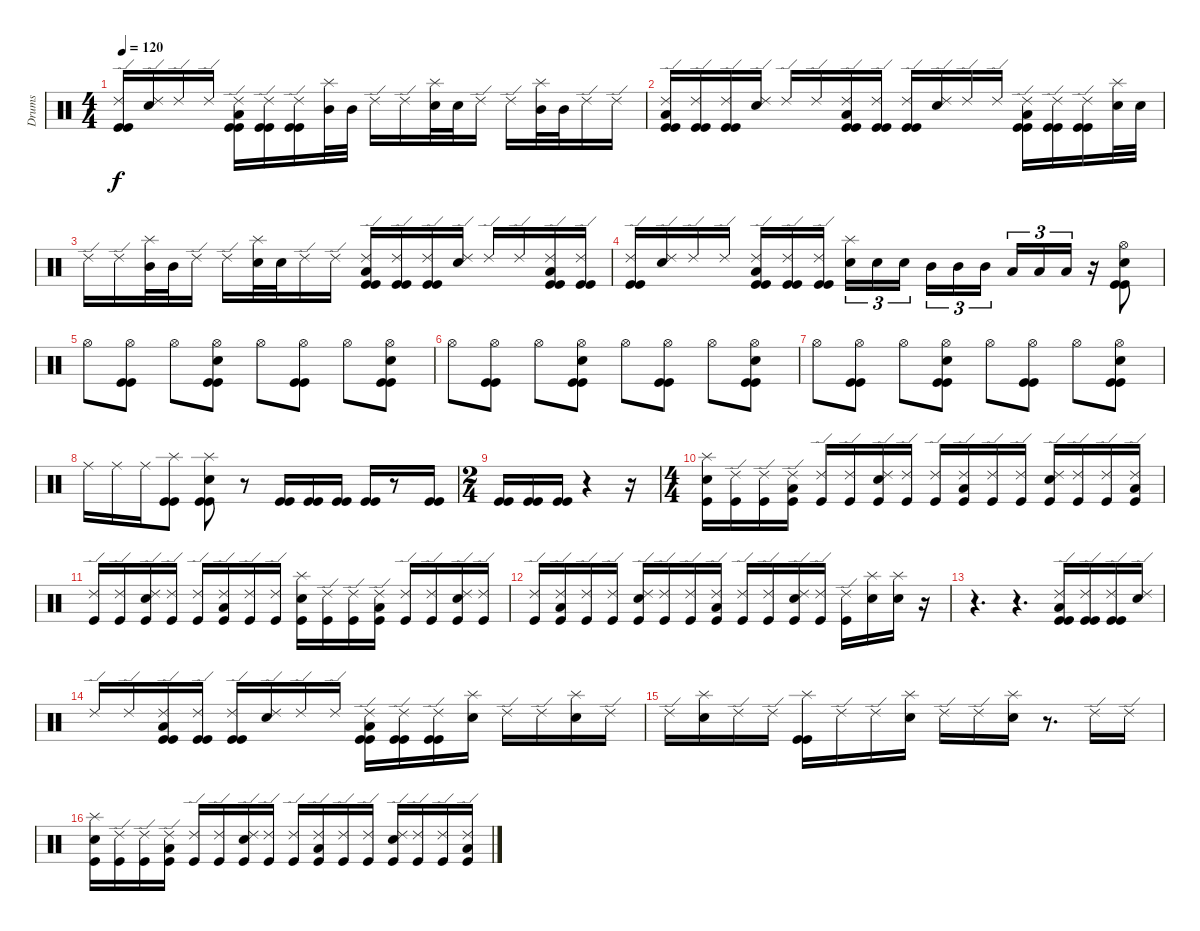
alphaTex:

\track ("Drums" "Drums") {instrument percussion}
\staff {score}
\articulation defaults
\ts (4 4)
\tempo 120
\clef neutral
\ks c
("Ride (edge) 2" "Kick (hit)" "Kick (hit)").16{dy f} ("Ride (edge) 2" "Electric Snare (hit)").16 "Ride (edge) 2".16 "Ride (edge) 2".16 ("Ride (edge) 2" "Low Floor Tom (hit)" "Kick (hit)" "Kick (hit)").16 ("Ride (edge) 2" "Kick (hit)" "Kick (hit)").16 ("Ride (edge) 2" "Kick (hit)" "Kick (hit)").16 ("Splash (hit)" "Mid Tom (hit)").32 "Mid Tom (hit)".32 "Ride (edge) 2".16 "Ride (edge) 2".16 ("Splash (hit)" "Electric Snare (hit)").32 "Electric Snare (hit)".32 "Ride (edge) 2".16 "Ride (edge) 2".16 ("Splash (hit)" "Mid Tom (hit)").32 "Mid Tom (hit)".32 "Ride (edge) 2".16 "Ride (edge) 2".16 |
("Ride (edge) 2" "Low Floor Tom (hit)" "Kick (hit)" "Kick (hit)").16 ("Ride (edge) 2" "Kick (hit)" "Kick (hit)").16 ("Ride (edge) 2" "Kick (hit)" "Kick (hit)").16 ("Ride (edge) 2" "Electric Snare (hit)").16 "Ride (edge) 2".16 "Ride (edge) 2".16 ("Ride (edge) 2" "Low Floor Tom (hit)" "Kick (hit)" "Kick (hit)").16 ("Ride (edge) 2" "Kick (hit)" "Kick (hit)").16 ("Ride (edge) 2" "Kick (hit)" "Kick (hit)").16 ("Ride (edge) 2" "Electric Snare (hit)").16 "Ride (edge) 2".16 "Ride (edge) 2".16 ("Ride (edge) 2" "Low Floor Tom (hit)" "Kick (hit)" "Kick (hit)").16 ("Ride (edge) 2" "Kick (hit)" "Kick (hit)").16 ("Ride (edge) 2" "Kick (hit)" "Kick (hit)").16 ("Splash (hit)" "Electric Snare (hit)").32 "Electric Snare (hit)".32 |
"Ride (edge) 2".16 "Ride (edge) 2".16 ("Splash (hit)" "Mid Tom (hit)").32 "Mid Tom (hit)".32 "Ride (edge) 2".16 "Ride (edge) 2".16 ("Splash (hit)" "Electric Snare (hit)").32 "Electric Snare (hit)".32 "Ride (edge) 2".16 "Ride (edge) 2".16 ("Ride (edge) 2" "Low Floor Tom (hit)" "Kick (hit)" "Kick (hit)").16 ("Ride (edge) 2" "Kick (hit)" "Kick (hit)").16 ("Ride (edge) 2" "Kick (hit)" "Kick (hit)").16 ("Ride (edge) 2" "Electric Snare (hit)").16 "Ride (edge) 2".16 "Ride (edge) 2".16 ("Ride (edge) 2" "Low Floor Tom (hit)" "Kick (hit)" "Kick (hit)").16 ("Ride (edge) 2" "Kick (hit)" "Kick (hit)").16 |
("Ride (edge) 2" "Kick (hit)" "Kick (hit)").16 ("Ride (edge) 2" "Electric Snare (hit)").16 "Ride (edge) 2".16 "Ride (edge) 2".16 ("Ride (edge) 2" "Low Floor Tom (hit)" "Kick (hit)" "Kick (hit)").16 ("Ride (edge) 2" "Kick (hit)" "Kick (hit)").16 ("Ride (edge) 2" "Kick (hit)" "Kick (hit)").16 ("Splash (hit)" "Electric Snare (hit)").16{tu (3 2)} "Electric Snare (hit)".16{tu (3 2)} "Electric Snare (hit)".16{tu (3 2)} "Mid Tom (hit)".16{tu (3 2)} "Mid Tom (hit)".16{tu (3 2)} "Mid Tom (hit)".16{tu (3 2)} "Low Tom (hit)".16{tu (3 2)} "Low Tom (hit)".16{tu (3 2)} "Low Tom (hit)".16{tu (3 2)} r.16 ("Hi-Hat (open)" "Electric Snare (hit)" "Kick (hit)" "Kick (hit)").8 |
"Hi-Hat (open)".8 ("Hi-Hat (open)" "Kick (hit)" "Kick (hit)").8 "Hi-Hat (open)".8 ("Hi-Hat (open)" "Electric Snare (hit)" "Kick (hit)" "Kick (hit)").8 "Hi-Hat (open)".8 ("Hi-Hat (open)" "Kick (hit)" "Kick (hit)").8 "Hi-Hat (open)".8 ("Hi-Hat (open)" "Electric Snare (hit)" "Kick (hit)" "Kick (hit)").8 |
"Hi-Hat (open)".8 ("Hi-Hat (open)" "Kick (hit)" "Kick (hit)").8 "Hi-Hat (open)".8 ("Hi-Hat (open)" "Electric Snare (hit)" "Kick (hit)" "Kick (hit)").8 "Hi-Hat (open)".8 ("Hi-Hat (open)" "Kick (hit)" "Kick (hit)").8 "Hi-Hat (open)".8 ("Hi-Hat (open)" "Electric Snare (hit)" "Kick (hit)" "Kick (hit)").8 |
"Hi-Hat (open)".8 ("Hi-Hat (open)" "Kick (hit)" "Kick (hit)").8 "Hi-Hat (open)".8 ("Hi-Hat (open)" "Electric Snare (hit)" "Kick (hit)" "Kick (hit)").8 "Hi-Hat (open)".8 ("Hi-Hat (open)" "Kick (hit)" "Kick (hit)").8 "Hi-Hat (open)".8 ("Hi-Hat (open)" "Electric Snare (hit)" "Kick (hit)" "Kick (hit)").8 |
"Ride (middle)".16 "Ride (middle)".16 "Ride (middle)".16 ("Splash (hit)" "Kick (hit)" "Kick (hit)").8 ("Splash (hit)" "Electric Snare (hit)" "Kick (hit)" "Kick (hit)").8 r.8 ("Kick (hit)" "Kick (hit)").16 ("Kick (hit)" "Kick (hit)").16 ("Kick (hit)" "Kick (hit)").16 ("Kick (hit)" "Kick (hit)").16 r.8 ("Kick (hit)" "Kick (hit)").16 |
\ts (2 4)
("Kick (hit)" "Kick (hit)").16 ("Kick (hit)" "Kick (hit)").16 ("Kick (hit)" "Kick (hit)").16 r.4 r.16 |
\ts (4 4)
("Splash (hit)" "Electric Snare (hit)" "Kick (hit)").16 ("Ride (edge) 2" "Kick (hit)").16 ("Ride (edge) 2" "Kick (hit)").16 ("Ride (edge) 2" "Low Floor Tom (hit)" "Kick (hit)").16 ("Ride (edge) 2" "Kick (hit)").16 ("Ride (edge) 2" "Kick (hit)").16 ("Ride (edge) 2" "Electric Snare (hit)" "Kick (hit)").16 ("Ride (edge) 2" "Kick (hit)").16 ("Ride (edge) 2" "Kick (hit)").16 ("Ride (edge) 2" "Low Floor Tom (hit)" "Kick (hit)").16 ("Ride (edge) 2" "Kick (hit)").16 ("Ride (edge) 2" "Kick (hit)").16 ("Ride (edge) 2" "Electric Snare (hit)" "Kick (hit)").16 ("Ride (edge) 2" "Kick (hit)").16 ("Ride (edge) 2" "Kick (hit)").16 ("Ride (edge) 2" "Low Floor Tom (hit)" "Kick (hit)").16 |
("Ride (edge) 2" "Kick (hit)").16 ("Ride (edge) 2" "Kick (hit)").16 ("Ride (edge) 2" "Electric Snare (hit)" "Kick (hit)").16 ("Ride (edge) 2" "Kick (hit)").16 ("Ride (edge) 2" "Kick (hit)").16 ("Ride (edge) 2" "Low Floor Tom (hit)" "Kick (hit)").16 ("Ride (edge) 2" "Kick (hit)").16 ("Ride (edge) 2" "Kick (hit)").16 ("Splash (hit)" "Electric Snare (hit)" "Kick (hit)").16 ("Ride (edge) 2" "Kick (hit)").16 ("Ride (edge) 2" "Kick (hit)").16 ("Ride (edge) 2" "Low Floor Tom (hit)" "Kick (hit)").16 ("Ride (edge) 2" "Kick (hit)").16 ("Ride (edge) 2" "Kick (hit)").16 ("Ride (edge) 2" "Electric Snare (hit)" "Kick (hit)").16 ("Ride (edge) 2" "Kick (hit)").16 |
("Ride (edge) 2" "Kick (hit)").16 ("Ride (edge) 2" "Low Floor Tom (hit)" "Kick (hit)").16 ("Ride (edge) 2" "Kick (hit)").16 ("Ride (edge) 2" "Kick (hit)").16 ("Ride (edge) 2" "Electric Snare (hit)" "Kick (hit)").16 ("Ride (edge) 2" "Kick (hit)").16 ("Ride (edge) 2" "Kick (hit)").16 ("Ride (edge) 2" "Low Floor Tom (hit)" "Kick (hit)").16 ("Ride (edge) 2" "Kick (hit)").16 ("Ride (edge) 2" "Kick (hit)").16 ("Ride (edge) 2" "Electric Snare (hit)" "Kick (hit)").16 ("Ride (edge) 2" "Kick (hit)").16 ("Ride (edge) 2" "Kick (hit)").16 ("Splash (hit)" "Electric Snare (hit)").16 ("Splash (hit)" "Electric Snare (hit)").16 r.16 |
r.4{d} r.4{d} ("Ride (edge) 2" "Low Floor Tom (hit)" "Kick (hit)" "Kick (hit)").16 ("Ride (edge) 2" "Kick (hit)" "Kick (hit)").16 ("Ride (edge) 2" "Kick (hit)" "Kick (hit)").16 ("Ride (edge) 2" "Electric Snare (hit)").16 |
"Ride (edge) 2".16 "Ride (edge) 2".16 ("Ride (edge) 2" "Low Floor Tom (hit)" "Kick (hit)" "Kick (hit)").16 ("Ride (edge) 2" "Kick (hit)" "Kick (hit)").16 ("Ride (edge) 2" "Kick (hit)" "Kick (hit)").16 ("Ride (edge) 2" "Electric Snare (hit)").16 "Ride (edge) 2".16 "Ride (edge) 2".16 ("Ride (edge) 2" "Low Floor Tom (hit)" "Kick (hit)" "Kick (hit)").16 ("Ride (edge) 2" "Kick (hit)" "Kick (hit)").16 ("Ride (edge) 2" "Kick (hit)" "Kick (hit)").16 ("Splash (hit)" "Electric Snare (hit)").16 "Ride (edge) 2".16 "Ride (edge) 2".16 ("Splash (hit)" "Electric Snare (hit)").16 "Ride (edge) 2".16 |
"Ride (edge) 2".16 ("Splash (hit)" "Electric Snare (hit)").16 "Ride (edge) 2".16 "Ride (edge) 2".16 ("Splash (hit)" "Kick (hit)" "Kick (hit)").16 "Ride (edge) 2".16 "Ride (edge) 2".16 ("Splash (hit)" "Electric Snare (hit)").16 "Ride (edge) 2".16 "Ride (edge) 2".16 ("Splash (hit)" "Electric Snare (hit)").16 r.8{d} "Ride (edge) 2".16 "Ride (edge) 2".16 |
("Splash (hit)" "Electric Snare (hit)" "Kick (hit)").16 ("Ride (edge) 2" "Kick (hit)").16 ("Ride (edge) 2" "Kick (hit)").16 ("Ride (edge) 2" "Low Floor Tom (hit)" "Kick (hit)").16 ("Ride (edge) 2" "Kick (hit)").16 ("Ride (edge) 2" "Kick (hit)").16 ("Ride (edge) 2" "Electric Snare (hit)" "Kick (hit)").16 ("Ride (edge) 2" "Kick (hit)").16 ("Ride (edge) 2" "Kick (hit)").16 ("Ride (edge) 2" "Low Floor Tom (hit)" "Kick (hit)").16 ("Ride (edge) 2" "Kick (hit)").16 ("Ride (edge) 2" "Kick (hit)").16 ("Ride (edge) 2" "Electric Snare (hit)" "Kick (hit)").16 ("Ride (edge) 2" "Kick (hit)").16 ("Ride (edge) 2" "Kick (hit)").16 ("Ride (edge) 2" "Low Floor Tom (hit)" "Kick (hit)").16
